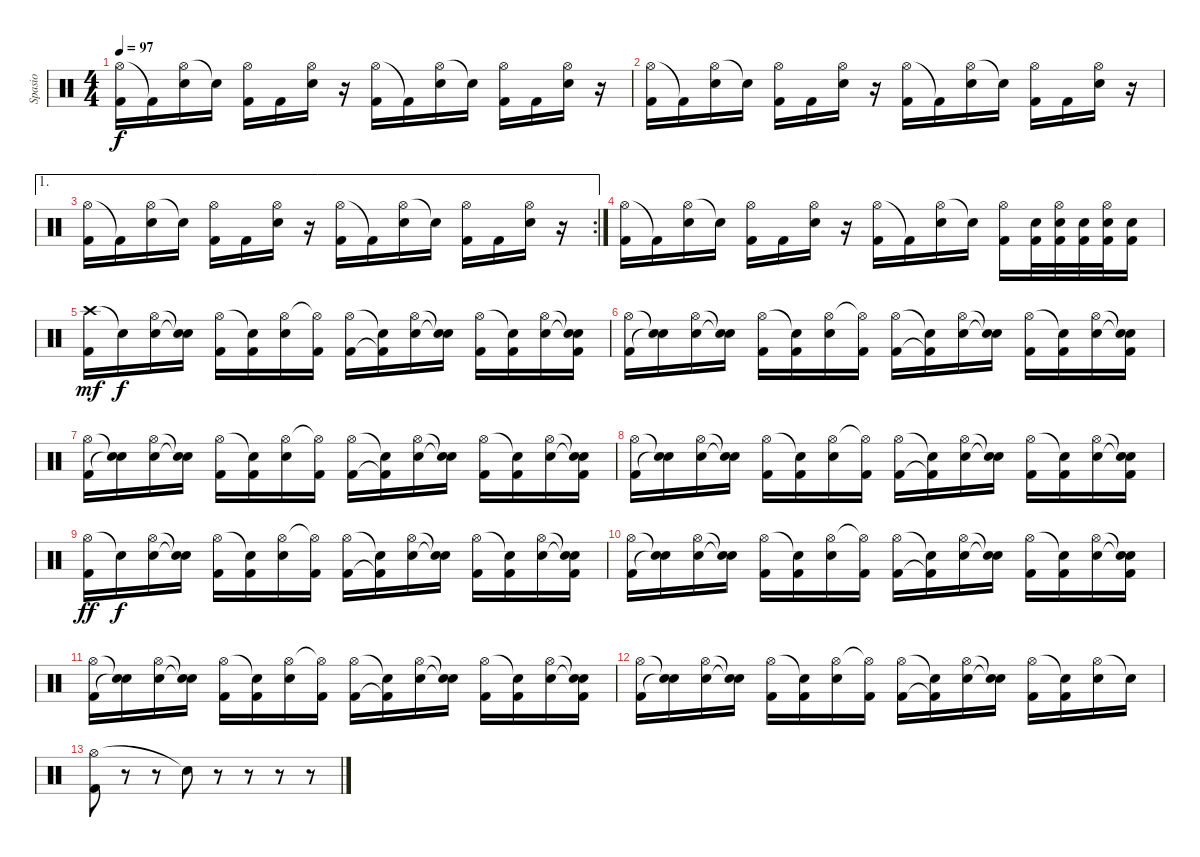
\track ("Spasio" "Spasio") {instrument percussion}
\staff {score}
\articulation defaults
\ts (4 4)
\tempo 97
\clef neutral
\ks c
("Hi-Hat (open)" "Kick (hit) 2").16{dy f} "Kick (hit) 2"{t}.16 ("Hi-Hat (open)" "Electric Snare (hit)").16 "Snare (hit)"{t}.16 ("Hi-Hat (open)" "Kick (hit) 2").16 "Kick (hit) 2".16 ("Hi-Hat (open)" "Electric Snare (hit)").16 r.16 ("Hi-Hat (open)" "Kick (hit) 2").16 "Kick (hit) 2"{t}.16 ("Hi-Hat (open)" "Electric Snare (hit)").16 "Electric Snare (hit)"{t}.16 ("Hi-Hat (open)" "Kick (hit) 2").16 "Kick (hit) 2".16 ("Hi-Hat (open)" "Electric Snare (hit)").16 r.16 |
("Hi-Hat (open)" "Kick (hit) 2").16 "Kick (hit) 2"{t}.16 ("Hi-Hat (open)" "Electric Snare (hit)").16 "Snare (hit)"{t}.16 ("Hi-Hat (open)" "Kick (hit) 2").16 "Kick (hit) 2".16 ("Hi-Hat (open)" "Electric Snare (hit)").16 r.16 ("Hi-Hat (open)" "Kick (hit) 2").16 "Kick (hit) 2"{t}.16 ("Hi-Hat (open)" "Electric Snare (hit)").16 "Electric Snare (hit)"{t}.16 ("Hi-Hat (open)" "Kick (hit) 2").16 "Kick (hit) 2".16 ("Hi-Hat (open)" "Electric Snare (hit)").16 r.16 |
\ae 1
\rc 2
("Hi-Hat (open)" "Kick (hit) 2").16 "Kick (hit) 2"{t}.16 ("Hi-Hat (open)" "Electric Snare (hit)").16 "Snare (hit)"{t}.16 ("Hi-Hat (open)" "Kick (hit) 2").16 "Kick (hit) 2".16 ("Hi-Hat (open)" "Electric Snare (hit)").16 r.16 ("Hi-Hat (open)" "Kick (hit) 2").16 "Kick (hit) 2"{t}.16 ("Hi-Hat (open)" "Electric Snare (hit)").16 "Electric Snare (hit)"{t}.16 ("Hi-Hat (open)" "Kick (hit) 2").16 "Kick (hit) 2".16 ("Hi-Hat (open)" "Electric Snare (hit)").16 r.16 |
("Hi-Hat (open)" "Kick (hit) 2").16 "Kick (hit) 2"{t}.16 ("Hi-Hat (open)" "Electric Snare (hit)").16 "Snare (hit)"{t}.16 ("Hi-Hat (open)" "Kick (hit) 2").16 "Kick (hit) 2".16 ("Hi-Hat (open)" "Electric Snare (hit)").16 r.16 ("Hi-Hat (open)" "Kick (hit) 2").16 "Kick (hit) 2"{t}.16 ("Hi-Hat (open)" "Electric Snare (hit)").16 "Electric Snare (hit)"{t}.16 ("Hi-Hat (open)" "Kick (hit) 2").16 ("Electric Snare (hit)" "Kick (hit) 2").32 ("Hi-Hat (open)" "Electric Snare (hit)" "Kick (hit) 2").32 ("Electric Snare (hit)" "Kick (hit) 2").32 ("Hi-Hat (open)" "Electric Snare (hit)" "Kick (hit) 2").32 ("Electric Snare (hit)" "Kick (hit) 2").16 |
("Crash high (hit)" "Kick (hit) 2").16{dy mf} "Snare (hit)"{t}.16{dy f} ("Hi-Hat (open)" "Electric Snare (hit)").16 ("Snare (hit)"{t} "Snare (hit)"{t}).16 ("Hi-Hat (open)" "Kick (hit) 2").16 ("Snare (hit)"{t} "Kick (hit) 2").16 ("Hi-Hat (open)" "Electric Snare (hit)").16 ("Hi-Hat (open)"{t} "Kick (hit) 2").16 ("Hi-Hat (open)" "Kick (hit) 2").16 ("Snare (hit)"{t} "Kick (hit) 2"{t}).16 ("Hi-Hat (open)" "Electric Snare (hit)").16 ("Snare (hit)"{t} "Electric Snare (hit)"{t}).16 ("Hi-Hat (open)" "Kick (hit) 2").16 ("Snare (hit)"{t} "Kick (hit) 2").16 ("Hi-Hat (open)" "Electric Snare (hit)").16 ("Snare (hit)"{t} "Snare (hit)"{t} "Kick (hit) 2").16 |
("Hi-Hat (open)" "Kick (hit) 2").16 ("Snare (hit)"{t} "Snare (hit)"{t}).16 ("Hi-Hat (open)" "Electric Snare (hit)").16 ("Snare (hit)"{t} "Snare (hit)"{t}).16 ("Hi-Hat (open)" "Kick (hit) 2").16 ("Snare (hit)"{t} "Kick (hit) 2").16 ("Hi-Hat (open)" "Electric Snare (hit)").16 ("Hi-Hat (open)"{t} "Kick (hit) 2").16 ("Hi-Hat (open)" "Kick (hit) 2").16 ("Snare (hit)"{t} "Kick (hit) 2"{t}).16 ("Hi-Hat (open)" "Electric Snare (hit)").16 ("Snare (hit)"{t} "Electric Snare (hit)"{t}).16 ("Hi-Hat (open)" "Kick (hit) 2").16 ("Snare (hit)"{t} "Kick (hit) 2").16 ("Hi-Hat (open)" "Electric Snare (hit)").16 ("Snare (hit)"{t} "Snare (hit)"{t} "Kick (hit) 2").16 |
("Hi-Hat (open)" "Kick (hit) 2").16 ("Snare (hit)"{t} "Snare (hit)"{t}).16 ("Hi-Hat (open)" "Electric Snare (hit)").16 ("Snare (hit)"{t} "Snare (hit)"{t}).16 ("Hi-Hat (open)" "Kick (hit) 2").16 ("Snare (hit)"{t} "Kick (hit) 2").16 ("Hi-Hat (open)" "Electric Snare (hit)").16 ("Hi-Hat (open)"{t} "Kick (hit) 2").16 ("Hi-Hat (open)" "Kick (hit) 2").16 ("Snare (hit)"{t} "Kick (hit) 2"{t}).16 ("Hi-Hat (open)" "Electric Snare (hit)").16 ("Snare (hit)"{t} "Electric Snare (hit)"{t}).16 ("Hi-Hat (open)" "Kick (hit) 2").16 ("Snare (hit)"{t} "Kick (hit) 2").16 ("Hi-Hat (open)" "Electric Snare (hit)").16 ("Snare (hit)"{t} "Snare (hit)"{t} "Kick (hit) 2").16 |
("Hi-Hat (open)" "Kick (hit) 2").16 ("Snare (hit)"{t} "Snare (hit)"{t}).16 ("Hi-Hat (open)" "Electric Snare (hit)").16 ("Snare (hit)"{t} "Snare (hit)"{t}).16 ("Hi-Hat (open)" "Kick (hit) 2").16 ("Snare (hit)"{t} "Kick (hit) 2").16 ("Hi-Hat (open)" "Electric Snare (hit)").16 ("Hi-Hat (open)"{t} "Kick (hit) 2").16 ("Hi-Hat (open)" "Kick (hit) 2").16 ("Snare (hit)"{t} "Kick (hit) 2"{t}).16 ("Hi-Hat (open)" "Electric Snare (hit)").16 ("Snare (hit)"{t} "Electric Snare (hit)"{t}).16 ("Hi-Hat (open)" "Kick (hit) 2").16 ("Snare (hit)"{t} "Kick (hit) 2").16 ("Hi-Hat (open)" "Electric Snare (hit)").16 ("Snare (hit)"{t} "Snare (hit)"{t} "Kick (hit) 2").16 |
("Hi-Hat (open)" "Kick (hit) 2").16{dy ff} "Snare (hit)"{t}.16{dy f} ("Hi-Hat (open)" "Electric Snare (hit)").16 ("Snare (hit)"{t} "Snare (hit)"{t}).16 ("Hi-Hat (open)" "Kick (hit) 2").16 ("Snare (hit)"{t} "Kick (hit) 2").16 ("Hi-Hat (open)" "Electric Snare (hit)").16 ("Hi-Hat (open)"{t} "Kick (hit) 2").16 ("Hi-Hat (open)" "Kick (hit) 2").16 ("Snare (hit)"{t} "Kick (hit) 2"{t}).16 ("Hi-Hat (open)" "Electric Snare (hit)").16 ("Snare (hit)"{t} "Electric Snare (hit)"{t}).16 ("Hi-Hat (open)" "Kick (hit) 2").16 ("Snare (hit)"{t} "Kick (hit) 2").16 ("Hi-Hat (open)" "Electric Snare (hit)").16 ("Snare (hit)"{t} "Snare (hit)"{t} "Kick (hit) 2").16 |
("Hi-Hat (open)" "Kick (hit) 2").16 ("Snare (hit)"{t} "Snare (hit)"{t}).16 ("Hi-Hat (open)" "Electric Snare (hit)").16 ("Snare (hit)"{t} "Snare (hit)"{t}).16 ("Hi-Hat (open)" "Kick (hit) 2").16 ("Snare (hit)"{t} "Kick (hit) 2").16 ("Hi-Hat (open)" "Electric Snare (hit)").16 ("Hi-Hat (open)"{t} "Kick (hit) 2").16 ("Hi-Hat (open)" "Kick (hit) 2").16 ("Snare (hit)"{t} "Kick (hit) 2"{t}).16 ("Hi-Hat (open)" "Electric Snare (hit)").16 ("Snare (hit)"{t} "Electric Snare (hit)"{t}).16 ("Hi-Hat (open)" "Kick (hit) 2").16 ("Snare (hit)"{t} "Kick (hit) 2").16 ("Hi-Hat (open)" "Electric Snare (hit)").16 ("Snare (hit)"{t} "Snare (hit)"{t} "Kick (hit) 2").16 |
("Hi-Hat (open)" "Kick (hit) 2").16 ("Snare (hit)"{t} "Snare (hit)"{t}).16 ("Hi-Hat (open)" "Electric Snare (hit)").16 ("Snare (hit)"{t} "Snare (hit)"{t}).16 ("Hi-Hat (open)" "Kick (hit) 2").16 ("Snare (hit)"{t} "Kick (hit) 2").16 ("Hi-Hat (open)" "Electric Snare (hit)").16 ("Hi-Hat (open)"{t} "Kick (hit) 2").16 ("Hi-Hat (open)" "Kick (hit) 2").16 ("Snare (hit)"{t} "Kick (hit) 2"{t}).16 ("Hi-Hat (open)" "Electric Snare (hit)").16 ("Snare (hit)"{t} "Electric Snare (hit)"{t}).16 ("Hi-Hat (open)" "Kick (hit) 2").16 ("Snare (hit)"{t} "Kick (hit) 2").16 ("Hi-Hat (open)" "Electric Snare (hit)").16 ("Snare (hit)"{t} "Snare (hit)"{t} "Kick (hit) 2").16 |
("Hi-Hat (open)" "Kick (hit) 2").16 ("Snare (hit)"{t} "Snare (hit)"{t}).16 ("Hi-Hat (open)" "Electric Snare (hit)").16 ("Snare (hit)"{t} "Snare (hit)"{t}).16 ("Hi-Hat (open)" "Kick (hit) 2").16 ("Snare (hit)"{t} "Kick (hit) 2").16 ("Hi-Hat (open)" "Electric Snare (hit)").16 ("Hi-Hat (open)"{t} "Kick (hit) 2").16 ("Hi-Hat (open)" "Kick (hit) 2").16 ("Snare (hit)"{t} "Kick (hit) 2"{t}).16 ("Hi-Hat (open)" "Electric Snare (hit)").16 ("Snare (hit)"{t} "Electric Snare (hit)"{t}).16 ("Hi-Hat (open)" "Kick (hit) 2").16 ("Snare (hit)"{t} "Kick (hit) 2").16 ("Hi-Hat (open)" "Electric Snare (hit)").16 "Snare (hit)"{t}.16 |
("Hi-Hat (open)" "Kick (hit) 2").8 r.8 r.8 "Snare (hit)"{t}.8 r.8 r.8 r.8 r.8
